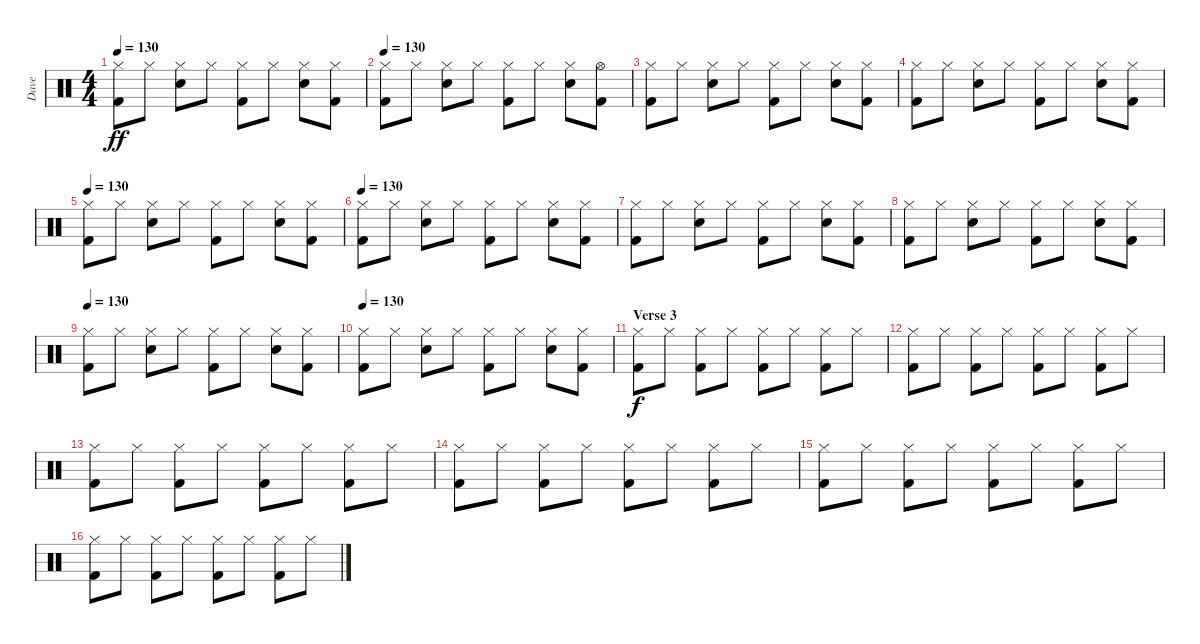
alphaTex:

\track ("Dave" "Dave") {instrument percussion}
\staff {score}
\articulation defaults
\ts (4 4)
\tempo 130
\clef neutral
\ks c
("Hi-Hat (closed)" "Kick (hit) 2").8{dy ff} "Hi-Hat (closed)".8 ("Hi-Hat (closed)" "Snare (hit) 2").8 "Hi-Hat (closed)".8 ("Hi-Hat (closed)" "Kick (hit) 2").8 "Hi-Hat (closed)".8 ("Hi-Hat (closed)" "Snare (hit) 2").8 ("Hi-Hat (closed)" "Kick (hit) 2").8 |
\tempo 130
("Hi-Hat (closed)" "Kick (hit) 2").8 "Hi-Hat (closed)".8 ("Hi-Hat (closed)" "Snare (hit) 2").8 "Hi-Hat (closed)".8 ("Hi-Hat (closed)" "Kick (hit) 2").8 "Hi-Hat (closed)".8 ("Hi-Hat (closed)" "Snare (hit) 2").8 ("Hi-Hat (open)" "Kick (hit) 2").8 |
("Hi-Hat (closed)" "Kick (hit) 2").8 "Hi-Hat (closed)".8 ("Hi-Hat (closed)" "Snare (hit) 2").8 "Hi-Hat (closed)".8 ("Hi-Hat (closed)" "Kick (hit) 2").8 "Hi-Hat (closed)".8 ("Hi-Hat (closed)" "Snare (hit) 2").8 ("Hi-Hat (closed)" "Kick (hit) 2").8 |
("Hi-Hat (closed)" "Kick (hit) 2").8 "Hi-Hat (closed)".8 ("Hi-Hat (closed)" "Snare (hit) 2").8 "Hi-Hat (closed)".8 ("Hi-Hat (closed)" "Kick (hit) 2").8 "Hi-Hat (closed)".8 ("Hi-Hat (closed)" "Snare (hit) 2").8 ("Hi-Hat (closed)" "Kick (hit) 2").8 |
\tempo 130
("Hi-Hat (closed)" "Kick (hit) 2").8 "Hi-Hat (closed)".8 ("Hi-Hat (closed)" "Snare (hit) 2").8 "Hi-Hat (closed)".8 ("Hi-Hat (closed)" "Kick (hit) 2").8 "Hi-Hat (closed)".8 ("Hi-Hat (closed)" "Snare (hit) 2").8 ("Hi-Hat (closed)" "Kick (hit) 2").8 |
\tempo 130
("Hi-Hat (closed)" "Kick (hit) 2").8 "Hi-Hat (closed)".8 ("Hi-Hat (closed)" "Snare (hit) 2").8 "Hi-Hat (closed)".8 ("Hi-Hat (closed)" "Kick (hit) 2").8 "Hi-Hat (closed)".8 ("Hi-Hat (closed)" "Snare (hit) 2").8 ("Hi-Hat (closed)" "Kick (hit) 2").8 |
("Hi-Hat (closed)" "Kick (hit) 2").8 "Hi-Hat (closed)".8 ("Hi-Hat (closed)" "Snare (hit) 2").8 "Hi-Hat (closed)".8 ("Hi-Hat (closed)" "Kick (hit) 2").8 "Hi-Hat (closed)".8 ("Hi-Hat (closed)" "Snare (hit) 2").8 ("Hi-Hat (closed)" "Kick (hit) 2").8 |
("Hi-Hat (closed)" "Kick (hit) 2").8 "Hi-Hat (closed)".8 ("Hi-Hat (closed)" "Snare (hit) 2").8 "Hi-Hat (closed)".8 ("Hi-Hat (closed)" "Kick (hit) 2").8 "Hi-Hat (closed)".8 ("Hi-Hat (closed)" "Snare (hit) 2").8 ("Hi-Hat (closed)" "Kick (hit) 2").8 |
\tempo 130
("Hi-Hat (closed)" "Kick (hit) 2").8 "Hi-Hat (closed)".8 ("Hi-Hat (closed)" "Snare (hit) 2").8 "Hi-Hat (closed)".8 ("Hi-Hat (closed)" "Kick (hit) 2").8 "Hi-Hat (closed)".8 ("Hi-Hat (closed)" "Snare (hit) 2").8 ("Hi-Hat (closed)" "Kick (hit) 2").8 |
\tempo 130
("Hi-Hat (closed)" "Kick (hit) 2").8 "Hi-Hat (closed)".8 ("Hi-Hat (closed)" "Snare (hit) 2").8 "Hi-Hat (closed)".8 ("Hi-Hat (closed)" "Kick (hit) 2").8 "Hi-Hat (closed)".8 ("Hi-Hat (closed)" "Snare (hit) 2").8 ("Hi-Hat (closed)" "Kick (hit) 2").8 |
\section ("" "Verse 3")
("Hi-Hat (closed)" "Kick (hit) 2").8{dy f} "Hi-Hat (closed)".8 ("Hi-Hat (closed)" "Kick (hit) 2").8 "Hi-Hat (closed)".8 ("Hi-Hat (closed)" "Kick (hit) 2").8 "Hi-Hat (closed)".8 ("Hi-Hat (closed)" "Kick (hit) 2").8 "Hi-Hat (closed)".8 |
("Hi-Hat (closed)" "Kick (hit) 2").8 "Hi-Hat (closed)".8 ("Hi-Hat (closed)" "Kick (hit) 2").8 "Hi-Hat (closed)".8 ("Hi-Hat (closed)" "Kick (hit) 2").8 "Hi-Hat (closed)".8 ("Hi-Hat (closed)" "Kick (hit) 2").8 "Hi-Hat (closed)".8 |
("Hi-Hat (closed)" "Kick (hit) 2").8 "Hi-Hat (closed)".8 ("Hi-Hat (closed)" "Kick (hit) 2").8 "Hi-Hat (closed)".8 ("Hi-Hat (closed)" "Kick (hit) 2").8 "Hi-Hat (closed)".8 ("Hi-Hat (closed)" "Kick (hit) 2").8 "Hi-Hat (closed)".8 |
("Hi-Hat (closed)" "Kick (hit) 2").8 "Hi-Hat (closed)".8 ("Hi-Hat (closed)" "Kick (hit) 2").8 "Hi-Hat (closed)".8 ("Hi-Hat (closed)" "Kick (hit) 2").8 "Hi-Hat (closed)".8 ("Hi-Hat (closed)" "Kick (hit) 2").8 "Hi-Hat (closed)".8 |
("Hi-Hat (closed)" "Kick (hit) 2").8 "Hi-Hat (closed)".8 ("Hi-Hat (closed)" "Kick (hit) 2").8 "Hi-Hat (closed)".8 ("Hi-Hat (closed)" "Kick (hit) 2").8 "Hi-Hat (closed)".8 ("Hi-Hat (closed)" "Kick (hit) 2").8 "Hi-Hat (closed)".8 |
("Hi-Hat (closed)" "Kick (hit) 2").8 "Hi-Hat (closed)".8 ("Hi-Hat (closed)" "Kick (hit) 2").8 "Hi-Hat (closed)".8 ("Hi-Hat (closed)" "Kick (hit) 2").8 "Hi-Hat (closed)".8 ("Hi-Hat (closed)" "Kick (hit) 2").8 "Hi-Hat (closed)".8
